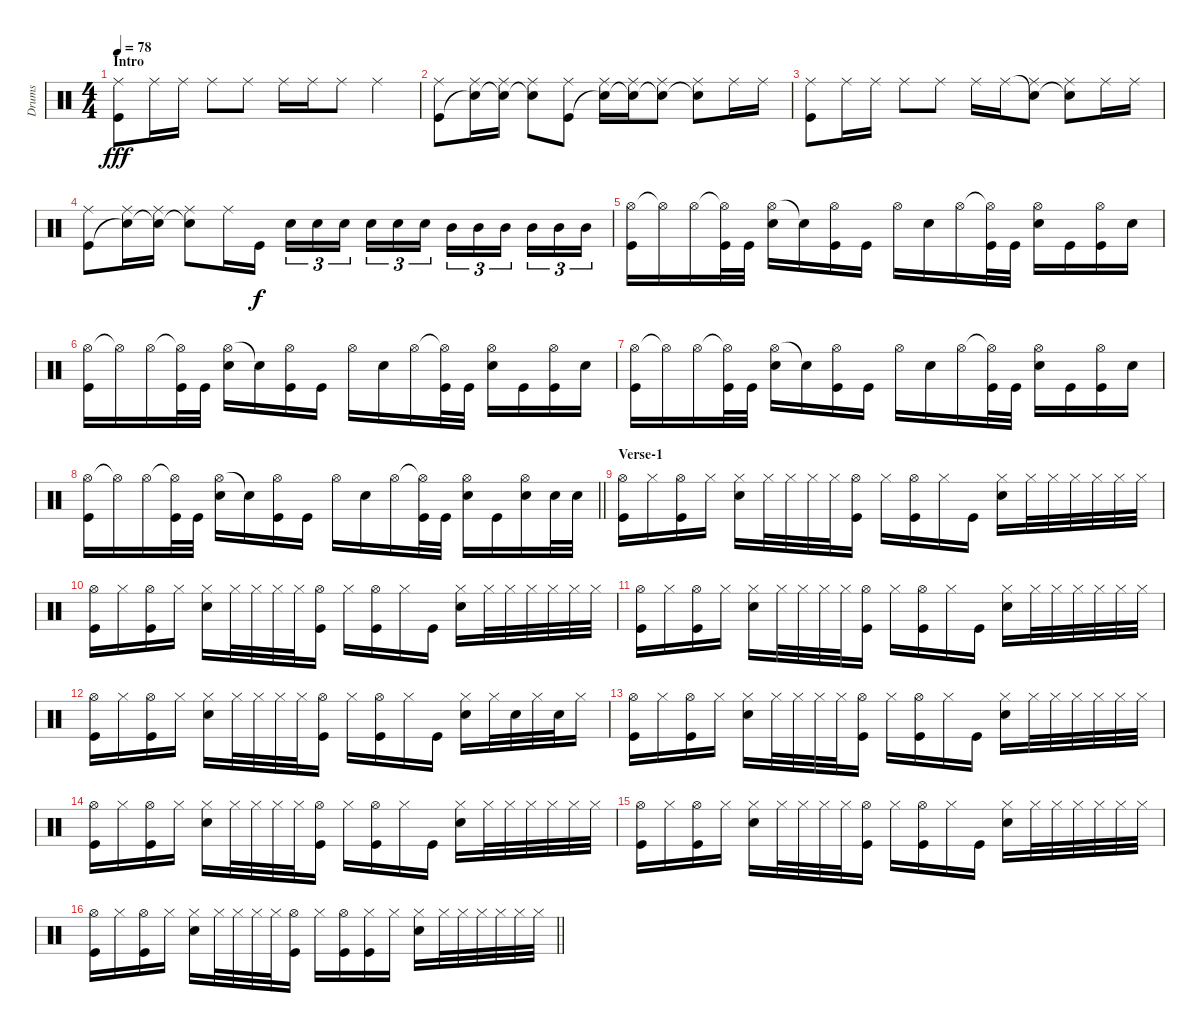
\track ("Drums" "Drums") {instrument percussion}
\staff {score}
\articulation defaults
\ts (4 4)
\section ("" "Intro")
\tempo 78
\clef neutral
\ks c
("Kick (hit)" "Ride (middle)").8{dy fff volume 9} "Ride (middle)".16 "Ride (middle)".16 "Ride (middle)".8 "Ride (middle)".8 "Ride (middle)".16 "Ride (middle)".16 "Ride (middle)".8 "Ride (middle)".4 |
("Kick (hit)" "Ride (middle)").8 ("Snare (hit)"{t} "Ride (middle)").16 ("Snare (hit)"{t} "Ride (middle)").16 ("Snare (hit)"{t} "Ride (middle)").8 ("Kick (hit)" "Ride (middle)").8 ("Snare (hit)"{t} "Ride (middle)").16 ("Snare (hit)"{t} "Ride (middle)").16 ("Snare (hit)"{t} "Ride (middle)").8 ("Snare (hit)"{t} "Ride (middle)").8 "Ride (middle)".16 "Ride (middle)".16 |
("Kick (hit)" "Ride (middle)").8 "Ride (middle)".16 "Ride (middle)".16 "Ride (middle)".8 "Ride (middle)".8 "Ride (middle)".16 "Ride (middle)".16 ("Snare (hit)"{t} "Ride (middle)").8 ("Snare (hit)"{t} "Ride (middle)").8 "Ride (middle)".16 "Ride (middle)".16 |
("Kick (hit)" "Ride (middle)").8 ("Snare (hit)"{t} "Ride (middle)").16 ("Snare (hit)"{t} "Ride (middle)").16 ("Snare (hit)"{t} "Ride (middle)").8 "Ride (middle)".16 "Kick (hit)".16{dy f volume 14} "Electric Snare (hit)".16{tu (3 2)} "Electric Snare (hit)".16{tu (3 2)} "Electric Snare (hit)".16{tu (3 2)} "Electric Snare (hit)".16{tu (3 2)} "Electric Snare (hit)".16{tu (3 2)} "Electric Snare (hit)".16{tu (3 2)} "Mid Tom (hit)".16{tu (3 2)} "Mid Tom (hit)".16{tu (3 2)} "Mid Tom (hit)".16{tu (3 2)} "Mid Tom (hit)".16{tu (3 2)} "Mid Tom (hit)".16{tu (3 2)} "Mid Tom (hit)".16{tu (3 2)} |
("Hi-Hat (open)" "Kick (hit)").16 "Hi-Hat (open)"{t}.16 "Hi-Hat (open)".16 ("Hi-Hat (open)"{t} "Kick (hit)").32 "Kick (hit)".32 ("Hi-Hat (open)" "Electric Snare (hit)").16 "Snare (hit)"{t}.16 ("Hi-Hat (open)" "Kick (hit)").16 "Kick (hit)".16 "Hi-Hat (open)".16 "Electric Snare (hit)".16 "Hi-Hat (open)".16 ("Hi-Hat (open)"{t} "Kick (hit)").32 "Kick (hit)".32 ("Hi-Hat (open)" "Electric Snare (hit)").16 "Kick (hit)".16 ("Hi-Hat (open)" "Kick (hit)").16 "Electric Snare (hit)".16 |
("Hi-Hat (open)" "Kick (hit)").16 "Hi-Hat (open)"{t}.16 "Hi-Hat (open)".16 ("Hi-Hat (open)"{t} "Kick (hit)").32 "Kick (hit)".32 ("Hi-Hat (open)" "Electric Snare (hit)").16 "Snare (hit)"{t}.16 ("Hi-Hat (open)" "Kick (hit)").16 "Kick (hit)".16 "Hi-Hat (open)".16 "Electric Snare (hit)".16 "Hi-Hat (open)".16 ("Hi-Hat (open)"{t} "Kick (hit)").32 "Kick (hit)".32 ("Hi-Hat (open)" "Electric Snare (hit)").16 "Kick (hit)".16 ("Hi-Hat (open)" "Kick (hit)").16 "Electric Snare (hit)".16 |
("Hi-Hat (open)" "Kick (hit)").16 "Hi-Hat (open)"{t}.16 "Hi-Hat (open)".16 ("Hi-Hat (open)"{t} "Kick (hit)").32 "Kick (hit)".32 ("Hi-Hat (open)" "Electric Snare (hit)").16 "Snare (hit)"{t}.16 ("Hi-Hat (open)" "Kick (hit)").16 "Kick (hit)".16 "Hi-Hat (open)".16 "Electric Snare (hit)".16 "Hi-Hat (open)".16 ("Hi-Hat (open)"{t} "Kick (hit)").32 "Kick (hit)".32 ("Hi-Hat (open)" "Electric Snare (hit)").16 "Kick (hit)".16 ("Hi-Hat (open)" "Kick (hit)").16 "Electric Snare (hit)".16 |
\barLineRight lightlight
("Hi-Hat (open)" "Kick (hit)").16 "Hi-Hat (open)"{t}.16 "Hi-Hat (open)".16 ("Hi-Hat (open)"{t} "Kick (hit)").32 "Kick (hit)".32 ("Hi-Hat (open)" "Electric Snare (hit)").16 "Snare (hit)"{t}.16 ("Hi-Hat (open)" "Kick (hit)").16 "Kick (hit)".16 "Hi-Hat (open)".16 "Electric Snare (hit)".16 "Hi-Hat (open)".16 ("Hi-Hat (open)"{t} "Kick (hit)").32 "Kick (hit)".32 ("Hi-Hat (open)" "Electric Snare (hit)").16 "Kick (hit)".16 ("Hi-Hat (open)" "Electric Snare (hit)").16 "Electric Snare (hit)".32 "Electric Snare (hit)".32 |
\section ("" "Verse-1")
("Hi-Hat (open)" "Kick (hit)").16 "Hi-Hat (closed)".16 ("Hi-Hat (open)" "Kick (hit)").16 "Hi-Hat (closed)".16 ("Hi-Hat (closed)" "Electric Snare (hit)").16 "Hi-Hat (closed)".32 "Hi-Hat (closed)".32 "Hi-Hat (closed)".32 "Hi-Hat (closed)".32 ("Hi-Hat (open)" "Kick (hit)").16 "Hi-Hat (closed)".16 ("Hi-Hat (open)" "Kick (hit)").16 "Hi-Hat (closed)".16 "Kick (hit)".16 ("Hi-Hat (closed)" "Electric Snare (hit)").16 "Hi-Hat (closed)".32 "Hi-Hat (closed)".32 "Hi-Hat (closed)".32 "Hi-Hat (closed)".32 "Hi-Hat (closed)".32 "Hi-Hat (closed)".32 |
("Hi-Hat (open)" "Kick (hit)").16 "Hi-Hat (closed)".16 ("Hi-Hat (open)" "Kick (hit)").16 "Hi-Hat (closed)".16 ("Hi-Hat (closed)" "Electric Snare (hit)").16 "Hi-Hat (closed)".32 "Hi-Hat (closed)".32 "Hi-Hat (closed)".32 "Hi-Hat (closed)".32 ("Hi-Hat (open)" "Kick (hit)").16 "Hi-Hat (closed)".16 ("Hi-Hat (open)" "Kick (hit)").16 "Hi-Hat (closed)".16 "Kick (hit)".16 ("Hi-Hat (closed)" "Electric Snare (hit)").16 "Hi-Hat (closed)".32 "Hi-Hat (closed)".32 "Hi-Hat (closed)".32 "Hi-Hat (closed)".32 "Hi-Hat (closed)".32 "Hi-Hat (closed)".32 |
("Hi-Hat (open)" "Kick (hit)").16 "Hi-Hat (closed)".16 ("Hi-Hat (open)" "Kick (hit)").16 "Hi-Hat (closed)".16 ("Hi-Hat (closed)" "Electric Snare (hit)").16 "Hi-Hat (closed)".32 "Hi-Hat (closed)".32 "Hi-Hat (closed)".32 "Hi-Hat (closed)".32 ("Hi-Hat (open)" "Kick (hit)").16 "Hi-Hat (closed)".16 ("Hi-Hat (open)" "Kick (hit)").16 "Hi-Hat (closed)".16 "Kick (hit)".16 ("Hi-Hat (closed)" "Electric Snare (hit)").16 "Hi-Hat (closed)".32 "Hi-Hat (closed)".32 "Hi-Hat (closed)".32 "Hi-Hat (closed)".32 "Hi-Hat (closed)".32 "Hi-Hat (closed)".32 |
("Hi-Hat (open)" "Kick (hit)").16 "Hi-Hat (closed)".16 ("Hi-Hat (open)" "Kick (hit)").16 "Hi-Hat (closed)".16 ("Hi-Hat (closed)" "Electric Snare (hit)").16 "Hi-Hat (closed)".32 "Hi-Hat (closed)".32 "Hi-Hat (closed)".32 "Hi-Hat (closed)".32 ("Hi-Hat (open)" "Kick (hit)").16 "Hi-Hat (closed)".16 ("Hi-Hat (open)" "Kick (hit)").16 "Hi-Hat (closed)".16 "Kick (hit)".16 ("Hi-Hat (closed)" "Electric Snare (hit)").16 "Hi-Hat (closed)".32 "Electric Snare (hit)".32 "Hi-Hat (closed)".32 "Electric Snare (hit)".32 "Hi-Hat (closed)".16 |
("Hi-Hat (open)" "Kick (hit)").16 "Hi-Hat (closed)".16 ("Hi-Hat (open)" "Kick (hit)").16 "Hi-Hat (closed)".16 ("Hi-Hat (closed)" "Electric Snare (hit)").16 "Hi-Hat (closed)".32 "Hi-Hat (closed)".32 "Hi-Hat (closed)".32 "Hi-Hat (closed)".32 ("Hi-Hat (open)" "Kick (hit)").16 "Hi-Hat (closed)".16 ("Hi-Hat (open)" "Kick (hit)").16 "Hi-Hat (closed)".16 "Kick (hit)".16 ("Hi-Hat (closed)" "Electric Snare (hit)").16 "Hi-Hat (closed)".32 "Hi-Hat (closed)".32 "Hi-Hat (closed)".32 "Hi-Hat (closed)".32 "Hi-Hat (closed)".32 "Hi-Hat (closed)".32 |
("Hi-Hat (open)" "Kick (hit)").16 "Hi-Hat (closed)".16 ("Hi-Hat (open)" "Kick (hit)").16 "Hi-Hat (closed)".16 ("Hi-Hat (closed)" "Electric Snare (hit)").16 "Hi-Hat (closed)".32 "Hi-Hat (closed)".32 "Hi-Hat (closed)".32 "Hi-Hat (closed)".32 ("Hi-Hat (open)" "Kick (hit)").16 "Hi-Hat (closed)".16 ("Hi-Hat (open)" "Kick (hit)").16 "Hi-Hat (closed)".16 "Kick (hit)".16 ("Hi-Hat (closed)" "Electric Snare (hit)").16 "Hi-Hat (closed)".32 "Hi-Hat (closed)".32 "Hi-Hat (closed)".32 "Hi-Hat (closed)".32 "Hi-Hat (closed)".32 "Hi-Hat (closed)".32 |
("Hi-Hat (open)" "Kick (hit)").16 "Hi-Hat (closed)".16 ("Hi-Hat (open)" "Kick (hit)").16 "Hi-Hat (closed)".16 ("Hi-Hat (closed)" "Electric Snare (hit)").16 "Hi-Hat (closed)".32 "Hi-Hat (closed)".32 "Hi-Hat (closed)".32 "Hi-Hat (closed)".32 ("Hi-Hat (open)" "Kick (hit)").16 "Hi-Hat (closed)".16 ("Hi-Hat (open)" "Kick (hit)").16 "Hi-Hat (closed)".16 "Kick (hit)".16 ("Hi-Hat (closed)" "Electric Snare (hit)").16 "Hi-Hat (closed)".32 "Hi-Hat (closed)".32 "Hi-Hat (closed)".32 "Hi-Hat (closed)".32 "Hi-Hat (closed)".32 "Hi-Hat (closed)".32 |
\barLineRight lightlight
("Hi-Hat (open)" "Kick (hit)").16 "Hi-Hat (closed)".16 ("Hi-Hat (open)" "Kick (hit)").16 "Hi-Hat (closed)".16 ("Hi-Hat (closed)" "Electric Snare (hit)").16 "Hi-Hat (closed)".32 "Hi-Hat (closed)".32 "Hi-Hat (closed)".32 "Hi-Hat (closed)".32 ("Hi-Hat (open)" "Kick (hit)").16 "Hi-Hat (closed)".16 ("Hi-Hat (open)" "Kick (hit)").16 ("Hi-Hat (closed)" "Kick (hit)").16 "Hi-Hat (closed)".16 ("Hi-Hat (closed)" "Electric Snare (hit)").16 "Hi-Hat (closed)".32 "Hi-Hat (closed)".32 "Hi-Hat (closed)".32 "Hi-Hat (closed)".32 "Hi-Hat (closed)".32 "Hi-Hat (closed)".32
